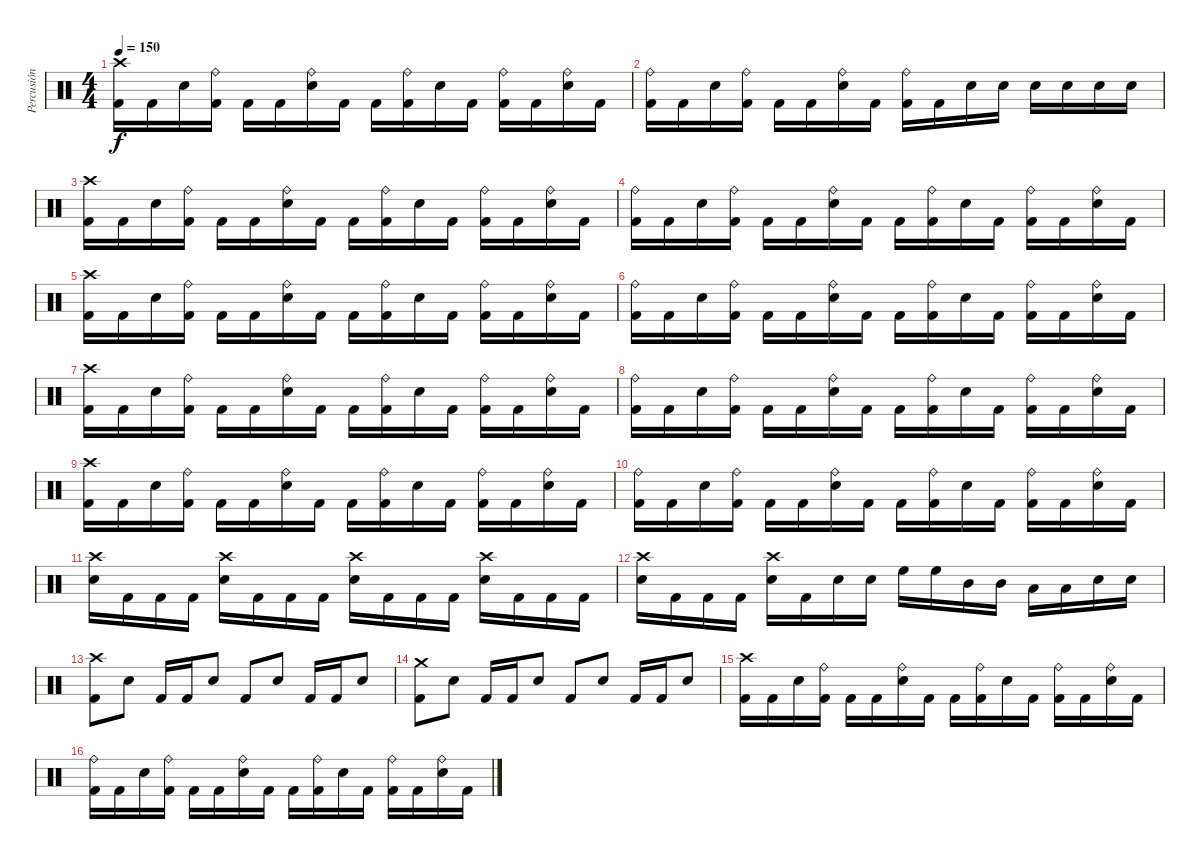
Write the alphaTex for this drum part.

\track ("Percusión" "Percusión") {instrument percussion}
\staff {score}
\articulation defaults
\ts (4 4)
\tempo 150
\clef neutral
\ks c
("Crash high (hit)" "Kick (hit) 2").16{dy f} "Kick (hit) 2".16 "Electric Snare (hit)".16 ("Ride (bell)" "Kick (hit) 2").16 "Kick (hit) 2".16 "Kick (hit) 2".16 ("Ride (bell)" "Electric Snare (hit)").16 "Kick (hit) 2".16 "Kick (hit) 2".16 ("Ride (bell)" "Kick (hit) 2").16 "Electric Snare (hit)".16 "Kick (hit) 2".16 ("Ride (bell)" "Kick (hit) 2").16 "Kick (hit) 2".16 ("Ride (bell)" "Electric Snare (hit)").16 "Kick (hit) 2".16 |
("Ride (bell)" "Kick (hit) 2").16 "Kick (hit) 2".16 "Electric Snare (hit)".16 ("Ride (bell)" "Kick (hit) 2").16 "Kick (hit) 2".16 "Kick (hit) 2".16 ("Ride (bell)" "Electric Snare (hit)").16 "Kick (hit) 2".16 ("Ride (bell)" "Kick (hit) 2").16 "Kick (hit) 2".16 "Electric Snare (hit)".16 "Electric Snare (hit)".16 "Electric Snare (hit)".16 "Electric Snare (hit)".16 "Electric Snare (hit)".16 "Electric Snare (hit)".16 |
("Crash high (hit)" "Kick (hit) 2").16 "Kick (hit) 2".16 "Electric Snare (hit)".16 ("Ride (bell)" "Kick (hit) 2").16 "Kick (hit) 2".16 "Kick (hit) 2".16 ("Ride (bell)" "Electric Snare (hit)").16 "Kick (hit) 2".16 "Kick (hit) 2".16 ("Ride (bell)" "Kick (hit) 2").16 "Electric Snare (hit)".16 "Kick (hit) 2".16 ("Ride (bell)" "Kick (hit) 2").16 "Kick (hit) 2".16 ("Ride (bell)" "Electric Snare (hit)").16 "Kick (hit) 2".16 |
("Ride (bell)" "Kick (hit) 2").16 "Kick (hit) 2".16 "Electric Snare (hit)".16 ("Ride (bell)" "Kick (hit) 2").16 "Kick (hit) 2".16 "Kick (hit) 2".16 ("Ride (bell)" "Electric Snare (hit)").16 "Kick (hit) 2".16 "Kick (hit) 2".16 ("Ride (bell)" "Kick (hit) 2").16 "Electric Snare (hit)".16 "Kick (hit) 2".16 ("Ride (bell)" "Kick (hit) 2").16 "Kick (hit) 2".16 ("Ride (bell)" "Electric Snare (hit)").16 "Kick (hit) 2".16 |
("Crash high (hit)" "Kick (hit) 2").16 "Kick (hit) 2".16 "Electric Snare (hit)".16 ("Ride (bell)" "Kick (hit) 2").16 "Kick (hit) 2".16 "Kick (hit) 2".16 ("Ride (bell)" "Electric Snare (hit)").16 "Kick (hit) 2".16 "Kick (hit) 2".16 ("Ride (bell)" "Kick (hit) 2").16 "Electric Snare (hit)".16 "Kick (hit) 2".16 ("Ride (bell)" "Kick (hit) 2").16 "Kick (hit) 2".16 ("Ride (bell)" "Electric Snare (hit)").16 "Kick (hit) 2".16 |
("Ride (bell)" "Kick (hit) 2").16 "Kick (hit) 2".16 "Electric Snare (hit)".16 ("Ride (bell)" "Kick (hit) 2").16 "Kick (hit) 2".16 "Kick (hit) 2".16 ("Ride (bell)" "Electric Snare (hit)").16 "Kick (hit) 2".16 "Kick (hit) 2".16 ("Ride (bell)" "Kick (hit) 2").16 "Electric Snare (hit)".16 "Kick (hit) 2".16 ("Ride (bell)" "Kick (hit) 2").16 "Kick (hit) 2".16 ("Ride (bell)" "Electric Snare (hit)").16 "Kick (hit) 2".16 |
("Crash high (hit)" "Kick (hit) 2").16 "Kick (hit) 2".16 "Electric Snare (hit)".16 ("Ride (bell)" "Kick (hit) 2").16 "Kick (hit) 2".16 "Kick (hit) 2".16 ("Ride (bell)" "Electric Snare (hit)").16 "Kick (hit) 2".16 "Kick (hit) 2".16 ("Ride (bell)" "Kick (hit) 2").16 "Electric Snare (hit)".16 "Kick (hit) 2".16 ("Ride (bell)" "Kick (hit) 2").16 "Kick (hit) 2".16 ("Ride (bell)" "Electric Snare (hit)").16 "Kick (hit) 2".16 |
("Ride (bell)" "Kick (hit) 2").16 "Kick (hit) 2".16 "Electric Snare (hit)".16 ("Ride (bell)" "Kick (hit) 2").16 "Kick (hit) 2".16 "Kick (hit) 2".16 ("Ride (bell)" "Electric Snare (hit)").16 "Kick (hit) 2".16 "Kick (hit) 2".16 ("Ride (bell)" "Kick (hit) 2").16 "Electric Snare (hit)".16 "Kick (hit) 2".16 ("Ride (bell)" "Kick (hit) 2").16 "Kick (hit) 2".16 ("Ride (bell)" "Electric Snare (hit)").16 "Kick (hit) 2".16 |
("Crash high (hit)" "Kick (hit) 2").16 "Kick (hit) 2".16 "Electric Snare (hit)".16 ("Ride (bell)" "Kick (hit) 2").16 "Kick (hit) 2".16 "Kick (hit) 2".16 ("Ride (bell)" "Electric Snare (hit)").16 "Kick (hit) 2".16 "Kick (hit) 2".16 ("Ride (bell)" "Kick (hit) 2").16 "Electric Snare (hit)".16 "Kick (hit) 2".16 ("Ride (bell)" "Kick (hit) 2").16 "Kick (hit) 2".16 ("Ride (bell)" "Electric Snare (hit)").16 "Kick (hit) 2".16 |
("Ride (bell)" "Kick (hit) 2").16 "Kick (hit) 2".16 "Electric Snare (hit)".16 ("Ride (bell)" "Kick (hit) 2").16 "Kick (hit) 2".16 "Kick (hit) 2".16 ("Ride (bell)" "Electric Snare (hit)").16 "Kick (hit) 2".16 "Kick (hit) 2".16 ("Ride (bell)" "Kick (hit) 2").16 "Electric Snare (hit)".16 "Kick (hit) 2".16 ("Ride (bell)" "Kick (hit) 2").16 "Kick (hit) 2".16 ("Ride (bell)" "Electric Snare (hit)").16 "Kick (hit) 2".16 |
("Crash high (hit)" "Electric Snare (hit)").16 "Kick (hit) 2".16 "Kick (hit) 2".16 "Kick (hit) 2".16 ("Crash high (hit)" "Electric Snare (hit)").16 "Kick (hit) 2".16 "Kick (hit) 2".16 "Kick (hit) 2".16 ("Crash high (hit)" "Electric Snare (hit)").16 "Kick (hit) 2".16 "Kick (hit) 2".16 "Kick (hit) 2".16 ("Crash high (hit)" "Electric Snare (hit)").16 "Kick (hit) 2".16 "Kick (hit) 2".16 "Kick (hit) 2".16 |
("Crash high (hit)" "Electric Snare (hit)").16 "Kick (hit) 2".16 "Kick (hit) 2".16 "Kick (hit) 2".16 ("Crash high (hit)" "Electric Snare (hit)").16 "Kick (hit) 2".16 "Electric Snare (hit)".16 "Electric Snare (hit)".16 "High Floor Tom (hit)".16 "High Floor Tom (hit)".16 "Mid Tom (hit)".16 "Mid Tom (hit)".16 "Low Tom (hit)".16 "Low Tom (hit)".16 "Electric Snare (hit)".16 "Electric Snare (hit)".16 |
("Crash high (hit)" "Kick (hit) 2").8 "Electric Snare (hit)".8 "Kick (hit) 2".16 "Kick (hit) 2".16 "Electric Snare (hit)".8 "Kick (hit) 2".8 "Electric Snare (hit)".8 "Kick (hit) 2".16 "Kick (hit) 2".16 "Electric Snare (hit)".8 |
("Crash medium (hit)" "Kick (hit) 2").8 "Electric Snare (hit)".8 "Kick (hit) 2".16 "Kick (hit) 2".16 "Electric Snare (hit)".8 "Kick (hit) 2".8 "Electric Snare (hit)".8 "Kick (hit) 2".16 "Kick (hit) 2".16 "Electric Snare (hit)".8 |
("Crash high (hit)" "Kick (hit) 2").16 "Kick (hit) 2".16 "Electric Snare (hit)".16 ("Ride (bell)" "Kick (hit) 2").16 "Kick (hit) 2".16 "Kick (hit) 2".16 ("Ride (bell)" "Electric Snare (hit)").16 "Kick (hit) 2".16 "Kick (hit) 2".16 ("Ride (bell)" "Kick (hit) 2").16 "Electric Snare (hit)".16 "Kick (hit) 2".16 ("Ride (bell)" "Kick (hit) 2").16 "Kick (hit) 2".16 ("Ride (bell)" "Electric Snare (hit)").16 "Kick (hit) 2".16 |
("Ride (bell)" "Kick (hit) 2").16 "Kick (hit) 2".16 "Electric Snare (hit)".16 ("Ride (bell)" "Kick (hit) 2").16 "Kick (hit) 2".16 "Kick (hit) 2".16 ("Ride (bell)" "Electric Snare (hit)").16 "Kick (hit) 2".16 "Kick (hit) 2".16 ("Ride (bell)" "Kick (hit) 2").16 "Electric Snare (hit)".16 "Kick (hit) 2".16 ("Ride (bell)" "Kick (hit) 2").16 "Kick (hit) 2".16 ("Ride (bell)" "Electric Snare (hit)").16 "Kick (hit) 2".16
